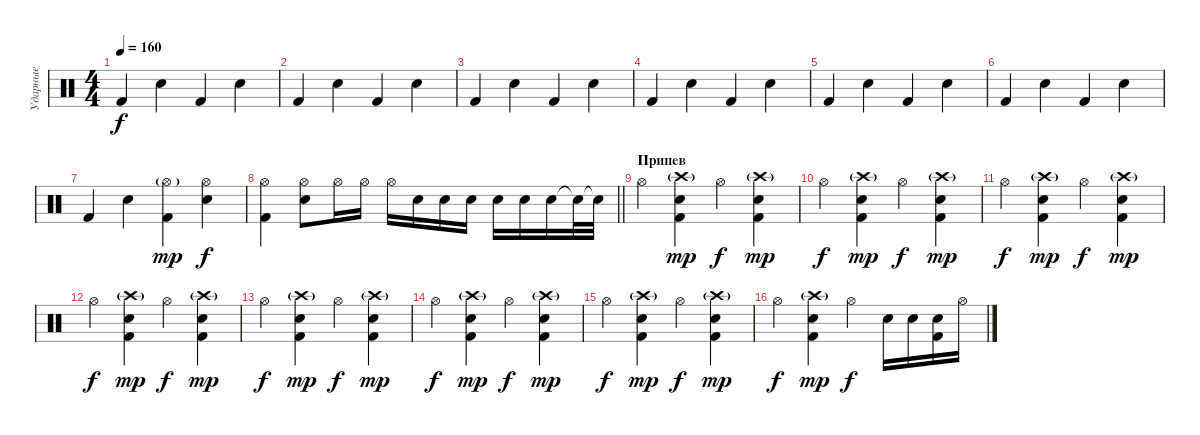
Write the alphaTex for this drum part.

\track ("Ударные" "Ударные") {instrument percussion}
\staff {score}
\articulation defaults
\ts (4 4)
\tempo 160
\clef neutral
\ks c "Kick (hit) 2".4{dy f} "Electric Snare (hit)".4 "Kick (hit) 2".4 "Electric Snare (hit)".4
|
"Kick (hit) 2".4 "Electric Snare (hit)".4 "Kick (hit) 2".4 "Electric Snare (hit)".4 |
"Kick (hit) 2".4 "Electric Snare (hit)".4 "Kick (hit) 2".4 "Electric Snare (hit)".4 |
"Kick (hit) 2".4 "Electric Snare (hit)".4 "Kick (hit) 2".4 "Electric Snare (hit)".4 |
"Kick (hit) 2".4 "Electric Snare (hit)".4 "Kick (hit) 2".4 "Electric Snare (hit)".4 |
"Kick (hit) 2".4 "Electric Snare (hit)".4 "Kick (hit) 2".4 "Electric Snare (hit)".4 |
"Kick (hit) 2".4 "Electric Snare (hit)".4 ("Kick (hit) 2" "Hi-Hat (open)"{g}).4{dy mp} ("Electric Snare (hit)" "Hi-Hat (open)").4{dy f} |
\barLineRight lightlight
("Kick (hit) 2" "Hi-Hat (open)").4 ("Snare (hit) 2" "Hi-Hat (open)").8 "Hi-Hat (open)".16 "Hi-Hat (open)".16 "Hi-Hat (open)".16 "Electric Snare (hit)".16 "Electric Snare (hit)".16 "Electric Snare (hit)".16 "Electric Snare (hit)".16 "Electric Snare (hit)".16 "Electric Snare (hit)".16 "Snare (hit)"{t}.32 "Snare (hit)"{t}.32 |
\section ("" "Припев")
"Hi-Hat (open)".4 ("Crash high (hit)"{g} "Kick (hit) 2" "Snare (hit) 2").4{dy mp} "Hi-Hat (open)".4{dy f} ("Crash high (hit)"{g} "Kick (hit) 2" "Snare (hit) 2").4{dy mp} |
"Hi-Hat (open)".4{dy f} ("Crash high (hit)"{g} "Kick (hit) 2" "Snare (hit) 2").4{dy mp} "Hi-Hat (open)".4{dy f} ("Crash high (hit)"{g} "Kick (hit) 2" "Snare (hit) 2").4{dy mp} |
"Hi-Hat (open)".4{dy f} ("Crash high (hit)"{g} "Kick (hit) 2" "Snare (hit) 2").4{dy mp} "Hi-Hat (open)".4{dy f} ("Crash high (hit)"{g} "Kick (hit) 2" "Snare (hit) 2").4{dy mp} |
"Hi-Hat (open)".4{dy f} ("Crash high (hit)"{g} "Kick (hit) 2" "Snare (hit) 2").4{dy mp} "Hi-Hat (open)".4{dy f} ("Crash high (hit)"{g} "Kick (hit) 2" "Snare (hit) 2").4{dy mp} |
"Hi-Hat (open)".4{dy f} ("Crash high (hit)"{g} "Kick (hit) 2" "Snare (hit) 2").4{dy mp} "Hi-Hat (open)".4{dy f} ("Crash high (hit)"{g} "Kick (hit) 2" "Snare (hit) 2").4{dy mp} |
"Hi-Hat (open)".4{dy f} ("Crash high (hit)"{g} "Kick (hit) 2" "Snare (hit) 2").4{dy mp} "Hi-Hat (open)".4{dy f} ("Crash high (hit)"{g} "Kick (hit) 2" "Snare (hit) 2").4{dy mp} |
"Hi-Hat (open)".4{dy f} ("Crash high (hit)"{g} "Kick (hit) 2" "Snare (hit) 2").4{dy mp} "Hi-Hat (open)".4{dy f} ("Crash high (hit)"{g} "Kick (hit) 2" "Snare (hit) 2").4{dy mp} |
"Hi-Hat (open)".4{dy f} ("Crash high (hit)"{g} "Kick (hit) 2" "Snare (hit) 2").4{dy mp} "Hi-Hat (open)".4{dy f} "Electric Snare (hit)".16 "Snare (hit) 2".16 ("Electric Snare (hit)" "Kick (hit) 2").16 "Hi-Hat (open)".16
